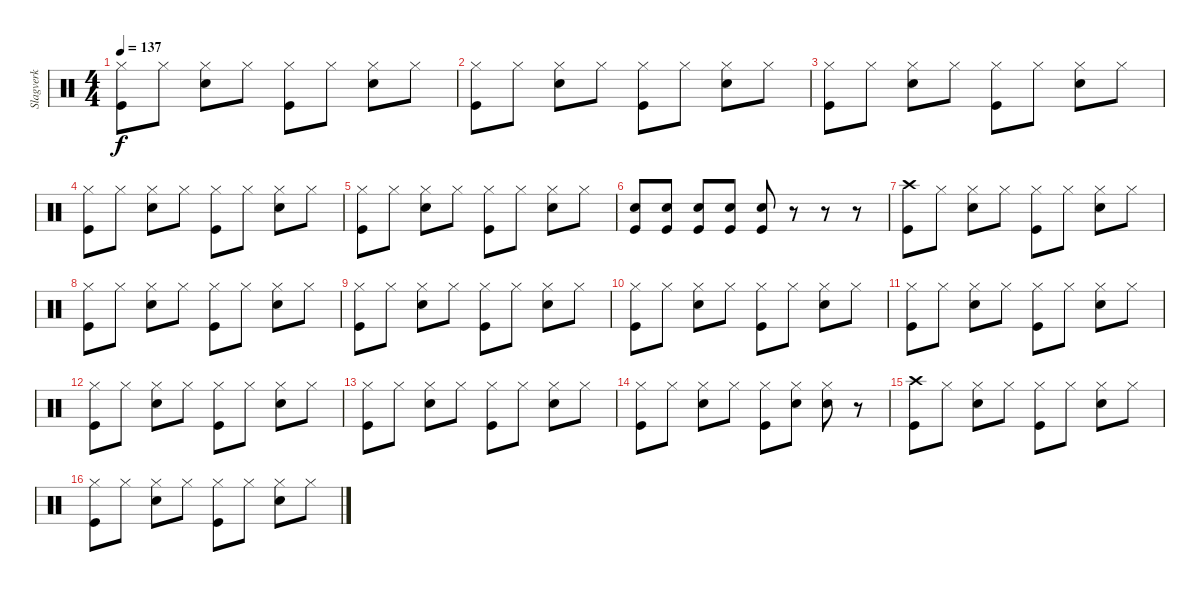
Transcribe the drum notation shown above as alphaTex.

\track ("Slagverk" "Slagverk") {instrument percussion}
\staff {score}
\articulation defaults
\ts (4 4)
\tempo 137
\clef neutral
\ks c
("Hi-Hat (closed)" "Kick (hit)").8{dy f} "Hi-Hat (closed)".8 ("Hi-Hat (closed)" "Snare (hit) 2").8 "Hi-Hat (closed)".8 ("Hi-Hat (closed)" "Kick (hit)").8 "Hi-Hat (closed)".8 ("Hi-Hat (closed)" "Snare (hit) 2").8 "Hi-Hat (closed)".8 |
("Hi-Hat (closed)" "Kick (hit)").8 "Hi-Hat (closed)".8 ("Hi-Hat (closed)" "Snare (hit) 2").8 "Hi-Hat (closed)".8 ("Hi-Hat (closed)" "Kick (hit)").8 "Hi-Hat (closed)".8 ("Hi-Hat (closed)" "Snare (hit) 2").8 "Hi-Hat (closed)".8 |
("Hi-Hat (closed)" "Kick (hit)").8 "Hi-Hat (closed)".8 ("Hi-Hat (closed)" "Snare (hit) 2").8 "Hi-Hat (closed)".8 ("Hi-Hat (closed)" "Kick (hit)").8 "Hi-Hat (closed)".8 ("Hi-Hat (closed)" "Snare (hit) 2").8 "Hi-Hat (closed)".8 |
("Hi-Hat (closed)" "Kick (hit)").8 "Hi-Hat (closed)".8 ("Hi-Hat (closed)" "Snare (hit) 2").8 "Hi-Hat (closed)".8 ("Hi-Hat (closed)" "Kick (hit)").8 "Hi-Hat (closed)".8 ("Hi-Hat (closed)" "Snare (hit) 2").8 "Hi-Hat (closed)".8 |
("Hi-Hat (closed)" "Kick (hit)").8 "Hi-Hat (closed)".8 ("Hi-Hat (closed)" "Snare (hit) 2").8 "Hi-Hat (closed)".8 ("Hi-Hat (closed)" "Kick (hit)").8 "Hi-Hat (closed)".8 ("Hi-Hat (closed)" "Snare (hit) 2").8 "Hi-Hat (closed)".8 |
("Kick (hit)" "Snare (hit) 2").8 ("Kick (hit)" "Snare (hit) 2").8 ("Kick (hit)" "Snare (hit) 2").8 ("Kick (hit)" "Snare (hit) 2").8 ("Kick (hit)" "Snare (hit) 2").8 r.8 r.8 r.8 |
("Crash high (hit)" "Kick (hit)").8 "Hi-Hat (closed)".8 ("Hi-Hat (closed)" "Snare (hit) 2").8 "Hi-Hat (closed)".8 ("Hi-Hat (closed)" "Kick (hit)").8 "Hi-Hat (closed)".8 ("Hi-Hat (closed)" "Snare (hit) 2").8 "Hi-Hat (closed)".8 |
("Hi-Hat (closed)" "Kick (hit)").8 "Hi-Hat (closed)".8 ("Hi-Hat (closed)" "Snare (hit) 2").8 "Hi-Hat (closed)".8 ("Hi-Hat (closed)" "Kick (hit)").8 "Hi-Hat (closed)".8 ("Hi-Hat (closed)" "Snare (hit) 2").8 "Hi-Hat (closed)".8 |
("Hi-Hat (closed)" "Kick (hit)").8 "Hi-Hat (closed)".8 ("Hi-Hat (closed)" "Snare (hit) 2").8 "Hi-Hat (closed)".8 ("Hi-Hat (closed)" "Kick (hit)").8 "Hi-Hat (closed)".8 ("Hi-Hat (closed)" "Snare (hit) 2").8 "Hi-Hat (closed)".8 |
("Hi-Hat (closed)" "Kick (hit)").8 "Hi-Hat (closed)".8 ("Hi-Hat (closed)" "Snare (hit) 2").8 "Hi-Hat (closed)".8 ("Hi-Hat (closed)" "Kick (hit)").8 "Hi-Hat (closed)".8 ("Hi-Hat (closed)" "Snare (hit) 2").8 "Hi-Hat (closed)".8 |
("Hi-Hat (closed)" "Kick (hit)").8 "Hi-Hat (closed)".8 ("Hi-Hat (closed)" "Snare (hit) 2").8 "Hi-Hat (closed)".8 ("Hi-Hat (closed)" "Kick (hit)").8 "Hi-Hat (closed)".8 ("Hi-Hat (closed)" "Snare (hit) 2").8 "Hi-Hat (closed)".8 |
("Hi-Hat (closed)" "Kick (hit)").8 "Hi-Hat (closed)".8 ("Hi-Hat (closed)" "Snare (hit) 2").8 "Hi-Hat (closed)".8 ("Hi-Hat (closed)" "Kick (hit)").8 "Hi-Hat (closed)".8 ("Hi-Hat (closed)" "Snare (hit) 2").8 "Hi-Hat (closed)".8 |
("Hi-Hat (closed)" "Kick (hit)").8 "Hi-Hat (closed)".8 ("Hi-Hat (closed)" "Snare (hit) 2").8 "Hi-Hat (closed)".8 ("Hi-Hat (closed)" "Kick (hit)").8 "Hi-Hat (closed)".8 ("Hi-Hat (closed)" "Snare (hit) 2").8 "Hi-Hat (closed)".8 |
("Hi-Hat (closed)" "Kick (hit)").8 "Hi-Hat (closed)".8 ("Hi-Hat (closed)" "Snare (hit) 2").8 "Hi-Hat (closed)".8 ("Hi-Hat (closed)" "Kick (hit)").8 ("Hi-Hat (closed)" "Snare (hit) 2").8 ("Hi-Hat (closed)" "Snare (hit) 2").8 r.8 |
("Crash high (hit)" "Kick (hit)").8 "Hi-Hat (closed)".8 ("Hi-Hat (closed)" "Snare (hit) 2").8 "Hi-Hat (closed)".8 ("Hi-Hat (closed)" "Kick (hit)").8 "Hi-Hat (closed)".8 ("Hi-Hat (closed)" "Snare (hit) 2").8 "Hi-Hat (closed)".8 |
("Hi-Hat (closed)" "Kick (hit)").8 "Hi-Hat (closed)".8 ("Hi-Hat (closed)" "Snare (hit) 2").8 "Hi-Hat (closed)".8 ("Hi-Hat (closed)" "Kick (hit)").8 "Hi-Hat (closed)".8 ("Hi-Hat (closed)" "Snare (hit) 2").8 "Hi-Hat (closed)".8
